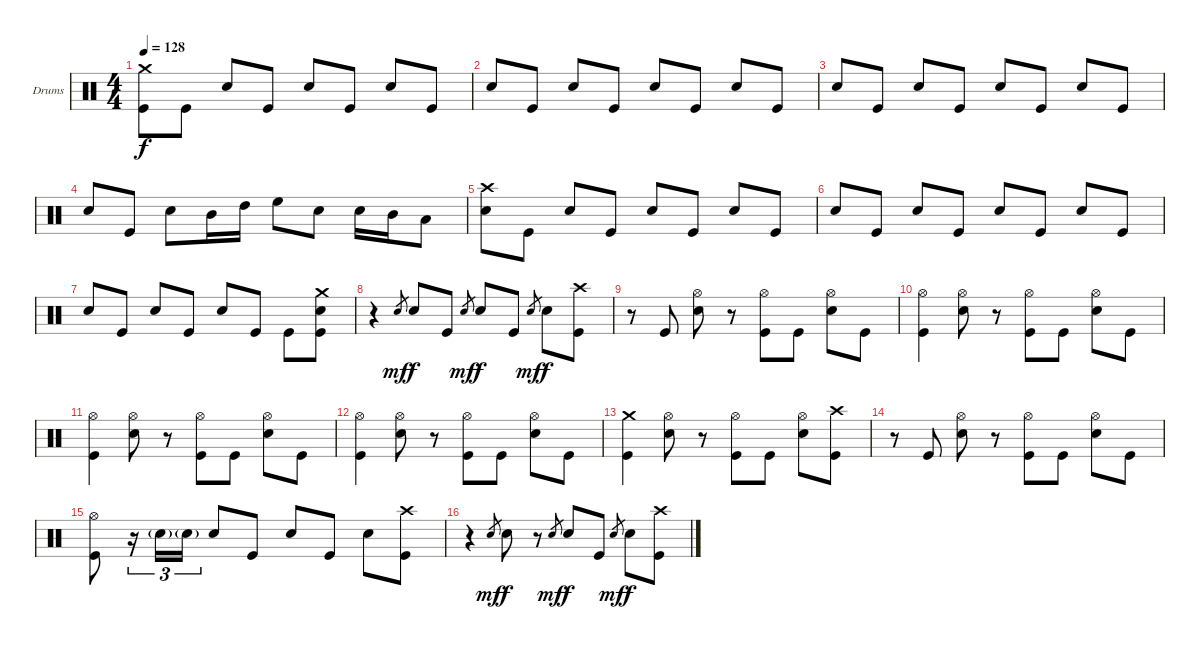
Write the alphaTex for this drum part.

\defaultSystemsLayout 4
\bracketExtendMode groupsimilarinstruments
\firstSystemTrackNameOrientation horizontal
\otherSystemsTrackNameOrientation horizontal
\track ("Drumkit" "Drums") {instrument percussion}
\staff {score}
\articulation defaults
\ts (4 4)
\tempo 128
\clef neutral
\ks c
("Crash medium (hit)" "Kick (hit)").8{dy f} "Kick (hit)".8 "Snare (hit) 2".8 "Kick (hit)".8 "Snare (hit) 2".8 "Kick (hit)".8 "Snare (hit) 2".8 "Kick (hit)".8 |
"Snare (hit) 2".8 "Kick (hit)".8 "Snare (hit) 2".8 "Kick (hit)".8 "Snare (hit) 2".8 "Kick (hit)".8 "Snare (hit) 2".8 "Kick (hit)".8 |
"Snare (hit) 2".8 "Kick (hit)".8 "Snare (hit) 2".8 "Kick (hit)".8 "Snare (hit) 2".8 "Kick (hit)".8 "Snare (hit) 2".8 "Kick (hit)".8 |
"Snare (hit) 2".8 "Kick (hit)".8 "Snare (hit) 2".8 "Mid Tom (hit)".16 "High Tom (hit)".16 "High Floor Tom (hit)".8 "Snare (hit) 2".8 "Snare (hit) 2".16 "Mid Tom (hit)".16 "Low Tom (hit)".8 |
("Crash high (hit)" "Snare (hit) 2").8 "Kick (hit)".8 "Snare (hit) 2".8 "Kick (hit)".8 "Snare (hit) 2".8 "Kick (hit)".8 "Snare (hit) 2".8 "Kick (hit)".8 |
"Snare (hit) 2".8 "Kick (hit)".8 "Snare (hit) 2".8 "Kick (hit)".8 "Snare (hit) 2".8 "Kick (hit)".8 "Snare (hit) 2".8 "Kick (hit)".8 |
"Snare (hit) 2".8 "Kick (hit)".8 "Snare (hit) 2".8 "Kick (hit)".8 "Snare (hit) 2".8 "Kick (hit)".8 "Kick (hit)".8 ("Crash medium (hit)" "Snare (hit) 2" "Kick (hit)").8 |
r.4 "Snare (hit) 2".8{gr dy mf} "Snare (hit) 2".8{dy f} "Kick (hit)".8 "Snare (hit) 2".8{gr dy mf} "Snare (hit) 2".8{dy f} "Kick (hit)".8 "Snare (hit) 2".8{gr dy mf} "Snare (hit) 2".8{dy f} ("Crash high (hit)" "Kick (hit)").8 |
r.8 "Kick (hit)".8 ("Hi-Hat (open)" "Snare (hit) 2").8 r.8 ("Hi-Hat (open)" "Kick (hit)").8 "Kick (hit)".8 ("Hi-Hat (open)" "Snare (hit) 2").8 "Kick (hit)".8 |
("Hi-Hat (open)" "Kick (hit)").4 ("Hi-Hat (open)" "Snare (hit) 2").8 r.8 ("Hi-Hat (open)" "Kick (hit)").8 "Kick (hit)".8 ("Hi-Hat (open)" "Snare (hit) 2").8 "Kick (hit)".8 |
("Hi-Hat (open)" "Kick (hit)").4 ("Hi-Hat (open)" "Snare (hit) 2").8 r.8 ("Hi-Hat (open)" "Kick (hit)").8 "Kick (hit)".8 ("Hi-Hat (open)" "Snare (hit) 2").8 "Kick (hit)".8 |
("Hi-Hat (open)" "Kick (hit)").4 ("Hi-Hat (open)" "Snare (hit) 2").8 r.8 ("Hi-Hat (open)" "Kick (hit)").8 "Kick (hit)".8 ("Hi-Hat (open)" "Snare (hit) 2").8 "Kick (hit)".8 |
("Crash medium (hit)" "Kick (hit)").4 ("Hi-Hat (open)" "Snare (hit) 2").8 r.8 ("Hi-Hat (open)" "Kick (hit)").8 "Kick (hit)".8 ("Hi-Hat (open)" "Snare (hit) 2").8 ("Crash high (hit)" "Kick (hit)").8 |
r.8 "Kick (hit)".8 ("Hi-Hat (open)" "Snare (hit) 2").8 r.8 ("Hi-Hat (open)" "Kick (hit)").8 "Kick (hit)".8 ("Hi-Hat (open)" "Snare (hit) 2").8 "Kick (hit)".8 |
("Hi-Hat (open)" "Kick (hit)").8 r.16{tu (3 2)} "Snare (hit) 2"{g}.16{tu (3 2)} "Snare (hit) 2"{g}.16{tu (3 2)} "Snare (hit) 2".8 "Kick (hit)".8 "Snare (hit) 2".8 "Kick (hit)".8 "Snare (hit) 2".8 ("Crash high (hit)" "Kick (hit)").8 |
r.4 "Snare (hit) 2".8{gr dy mf} "Snare (hit) 2".8{dy f} r.8 "Snare (hit) 2".8{gr dy mf} "Snare (hit) 2".8{dy f} "Kick (hit)".8 "Snare (hit) 2".8{gr dy mf} "Snare (hit) 2".8{dy f} ("Crash high (hit)" "Kick (hit)").8
